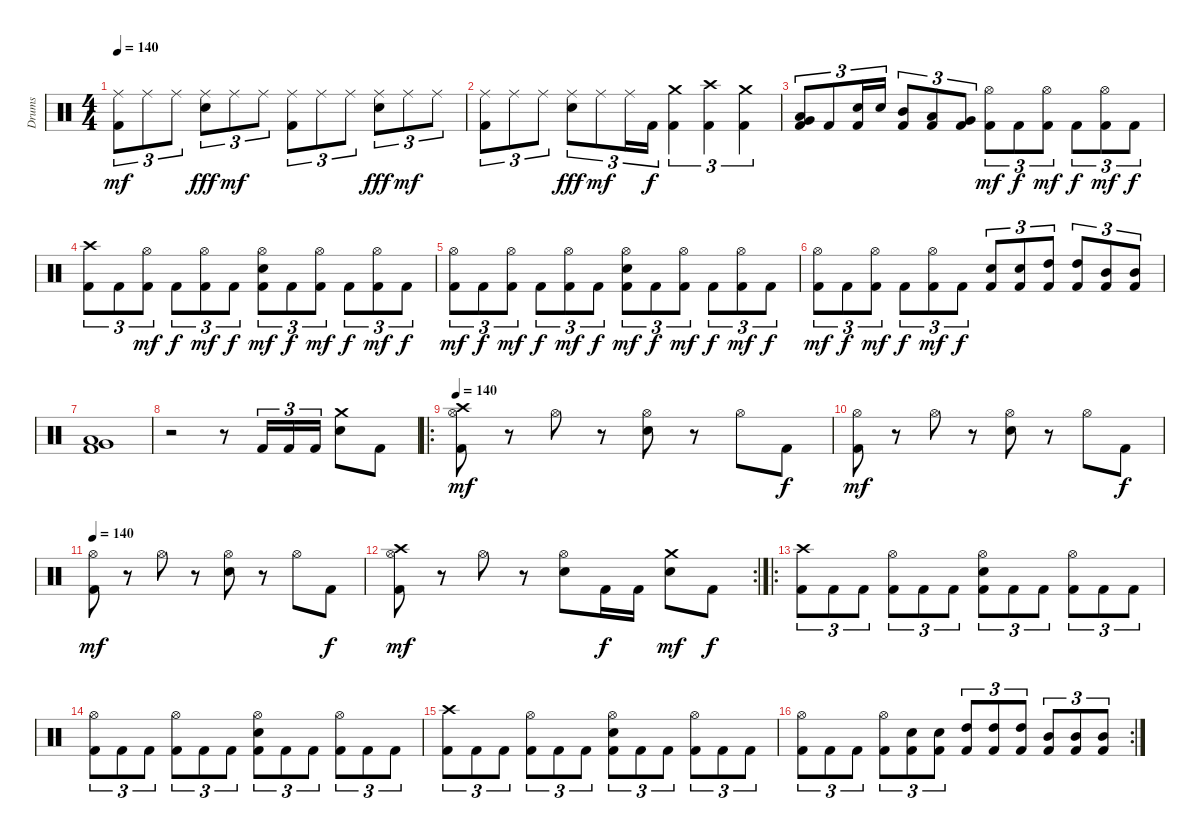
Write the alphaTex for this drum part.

\track ("Drums" "Drums") {instrument percussion}
\staff {score}
\articulation defaults
\ts (4 4)
\tempo 140
\clef neutral
\ks c
("Ride (middle)" "Kick (hit) 2").8{tu (3 2) dy mf} "Ride (middle)".8{tu (3 2)} "Ride (middle)".8{tu (3 2)} ("Ride (middle)" "Electric Snare (hit)").8{tu (3 2) dy fff} "Ride (middle)".8{tu (3 2) dy mf} "Ride (middle)".8{tu (3 2)} ("Ride (middle)" "Kick (hit) 2").8{tu (3 2)} "Ride (middle)".8{tu (3 2)} "Ride (middle)".8{tu (3 2)} ("Ride (middle)" "Electric Snare (hit)").8{tu (3 2) dy fff} "Ride (middle)".8{tu (3 2) dy mf} "Ride (middle)".8{tu (3 2)} |
("Ride (middle)" "Kick (hit) 2").8{tu (3 2)} "Ride (middle)".8{tu (3 2)} "Ride (middle)".8{tu (3 2)} ("Ride (middle)" "Electric Snare (hit)").8{tu (3 2) dy fff} "Ride (middle)".8{tu (3 2) dy mf} "Ride (middle)".16{tu (3 2)} "Kick (hit) 2".16{tu (3 2) dy f} ("Crash medium (hit)" "Kick (hit) 2").4{tu (3 2)} ("Crash high (hit)" "Kick (hit) 2").4{tu (3 2)} ("Crash medium (hit)" "Kick (hit) 2").4{tu (3 2)} |
("Very Low Tom (hit)" "Low Tom (hit)" "Kick (hit) 2").8{tu (3 2)} "Kick (hit) 2".8{tu (3 2)} ("Electric Snare (hit)" "Kick (hit) 2").16{tu (3 2)} "Electric Snare (hit)".16{tu (3 2)} ("Mid Tom (hit)" "Kick (hit) 2").8{tu (3 2)} ("Low Tom (hit)" "Kick (hit) 2").8{tu (3 2)} ("Very Low Tom (hit)" "Kick (hit) 2").8{tu (3 2)} ("Hi-Hat (open)" "Kick (hit) 2").8{tu (3 2) dy mf} "Kick (hit) 2".8{tu (3 2) dy f} ("Hi-Hat (open)" "Kick (hit) 2").8{tu (3 2) dy mf} "Kick (hit) 2".8{tu (3 2) dy f} ("Hi-Hat (open)" "Kick (hit) 2").8{tu (3 2) dy mf} "Kick (hit) 2".8{tu (3 2) dy f} |
("Crash high (hit)" "Kick (hit) 2").8{tu (3 2)} "Kick (hit) 2".8{tu (3 2)} ("Hi-Hat (open)" "Kick (hit) 2").8{tu (3 2) dy mf} "Kick (hit) 2".8{tu (3 2) dy f} ("Hi-Hat (open)" "Kick (hit) 2").8{tu (3 2) dy mf} "Kick (hit) 2".8{tu (3 2) dy f} ("Hi-Hat (open)" "Electric Snare (hit)" "Kick (hit) 2").8{tu (3 2) dy mf} "Kick (hit) 2".8{tu (3 2) dy f} ("Hi-Hat (open)" "Kick (hit) 2").8{tu (3 2) dy mf} "Kick (hit) 2".8{tu (3 2) dy f} ("Hi-Hat (open)" "Kick (hit) 2").8{tu (3 2) dy mf} "Kick (hit) 2".8{tu (3 2) dy f} |
("Hi-Hat (open)" "Kick (hit) 2").8{tu (3 2) dy mf} "Kick (hit) 2".8{tu (3 2) dy f} ("Hi-Hat (open)" "Kick (hit) 2").8{tu (3 2) dy mf} "Kick (hit) 2".8{tu (3 2) dy f} ("Hi-Hat (open)" "Kick (hit) 2").8{tu (3 2) dy mf} "Kick (hit) 2".8{tu (3 2) dy f} ("Hi-Hat (open)" "Electric Snare (hit)" "Kick (hit) 2").8{tu (3 2) dy mf} "Kick (hit) 2".8{tu (3 2) dy f} ("Hi-Hat (open)" "Kick (hit) 2").8{tu (3 2) dy mf} "Kick (hit) 2".8{tu (3 2) dy f} ("Hi-Hat (open)" "Kick (hit) 2").8{tu (3 2) dy mf} "Kick (hit) 2".8{tu (3 2) dy f} |
("Hi-Hat (open)" "Kick (hit) 2").8{tu (3 2) dy mf} "Kick (hit) 2".8{tu (3 2) dy f} ("Hi-Hat (open)" "Kick (hit) 2").8{tu (3 2) dy mf} "Kick (hit) 2".8{tu (3 2) dy f} ("Hi-Hat (open)" "Kick (hit) 2").8{tu (3 2) dy mf} "Kick (hit) 2".8{tu (3 2) dy f} ("Electric Snare (hit)" "Kick (hit) 2").8{tu (3 2)} ("Electric Snare (hit)" "Kick (hit) 2").8{tu (3 2)} ("High Tom (hit)" "Kick (hit) 2").8{tu (3 2)} ("High Tom (hit)" "Kick (hit) 2").8{tu (3 2)} ("Mid Tom (hit)" "Kick (hit) 2").8{tu (3 2)} ("Mid Tom (hit)" "Kick (hit) 2").8{tu (3 2)} |
("Very Low Tom (hit)" "Low Tom (hit)" "Kick (hit) 2").1 |
r.2 r.8 "Kick (hit) 2".16{tu (3 2)} "Kick (hit) 2".16{tu (3 2)} "Kick (hit) 2".16{tu (3 2)} ("Crash medium (hit)" "Electric Snare (hit)").8 "Kick (hit) 2".8 |
\ro
\tempo 140
("Crash high (hit)" "Hi-Hat (open)" "Kick (hit) 2").8{dy mf} r.8 "Hi-Hat (open)".8 r.8 ("Hi-Hat (open)" "Electric Snare (hit)").8 r.8 "Hi-Hat (open)".8 "Kick (hit) 2".8{dy f} |
("Hi-Hat (open)" "Kick (hit) 2").8{dy mf} r.8 "Hi-Hat (open)".8 r.8 ("Hi-Hat (open)" "Electric Snare (hit)").8 r.8 "Hi-Hat (open)".8 "Kick (hit) 2".8{dy f} |
\tempo 140
("Hi-Hat (open)" "Kick (hit) 2").8{dy mf} r.8 "Hi-Hat (open)".8 r.8 ("Hi-Hat (open)" "Electric Snare (hit)").8 r.8 "Hi-Hat (open)".8 "Kick (hit) 2".8{dy f} |
\rc 2
("Crash high (hit)" "Hi-Hat (open)" "Kick (hit) 2").8{dy mf} r.8 "Hi-Hat (open)".8 r.8 ("Hi-Hat (open)" "Electric Snare (hit)").8 "Kick (hit) 2".16{dy f} "Kick (hit) 2".16 ("Crash medium (hit)" "Electric Snare (hit)").8{dy mf} "Kick (hit) 2".8{dy f} |
\ro
("Crash high (hit)" "Kick (hit) 2").8{tu (3 2)} "Kick (hit) 2".8{tu (3 2)} "Kick (hit) 2".8{tu (3 2)} ("Hi-Hat (open)" "Kick (hit) 2").8{tu (3 2)} "Kick (hit) 2".8{tu (3 2)} "Kick (hit) 2".8{tu (3 2)} ("Hi-Hat (open)" "Electric Snare (hit)" "Kick (hit) 2").8{tu (3 2)} "Kick (hit) 2".8{tu (3 2)} "Kick (hit) 2".8{tu (3 2)} ("Hi-Hat (open)" "Kick (hit) 2").8{tu (3 2)} "Kick (hit) 2".8{tu (3 2)} "Kick (hit) 2".8{tu (3 2)} |
("Hi-Hat (open)" "Kick (hit) 2").8{tu (3 2)} "Kick (hit) 2".8{tu (3 2)} "Kick (hit) 2".8{tu (3 2)} ("Hi-Hat (open)" "Kick (hit) 2").8{tu (3 2)} "Kick (hit) 2".8{tu (3 2)} "Kick (hit) 2".8{tu (3 2)} ("Hi-Hat (open)" "Electric Snare (hit)" "Kick (hit) 2").8{tu (3 2)} "Kick (hit) 2".8{tu (3 2)} "Kick (hit) 2".8{tu (3 2)} ("Hi-Hat (open)" "Kick (hit) 2").8{tu (3 2)} "Kick (hit) 2".8{tu (3 2)} "Kick (hit) 2".8{tu (3 2)} |
("Crash high (hit)" "Kick (hit) 2").8{tu (3 2)} "Kick (hit) 2".8{tu (3 2)} "Kick (hit) 2".8{tu (3 2)} ("Hi-Hat (open)" "Kick (hit) 2").8{tu (3 2)} "Kick (hit) 2".8{tu (3 2)} "Kick (hit) 2".8{tu (3 2)} ("Hi-Hat (open)" "Electric Snare (hit)" "Kick (hit) 2").8{tu (3 2)} "Kick (hit) 2".8{tu (3 2)} "Kick (hit) 2".8{tu (3 2)} ("Hi-Hat (open)" "Kick (hit) 2").8{tu (3 2)} "Kick (hit) 2".8{tu (3 2)} "Kick (hit) 2".8{tu (3 2)} |
\rc 2
("Hi-Hat (open)" "Kick (hit) 2").8{tu (3 2)} "Kick (hit) 2".8{tu (3 2)} "Kick (hit) 2".8{tu (3 2)} ("Hi-Hat (open)" "Kick (hit) 2").8{tu (3 2)} ("Electric Snare (hit)" "Kick (hit) 2").8{tu (3 2)} ("Electric Snare (hit)" "Kick (hit) 2").8{tu (3 2)} ("High Tom (hit)" "Kick (hit) 2").8{tu (3 2)} ("High Tom (hit)" "Kick (hit) 2").8{tu (3 2)} ("High Tom (hit)" "Kick (hit) 2").8{tu (3 2)} ("Mid Tom (hit)" "Kick (hit) 2").8{tu (3 2)} ("Mid Tom (hit)" "Kick (hit) 2").8{tu (3 2)} ("Mid Tom (hit)" "Kick (hit) 2").8{tu (3 2)}
